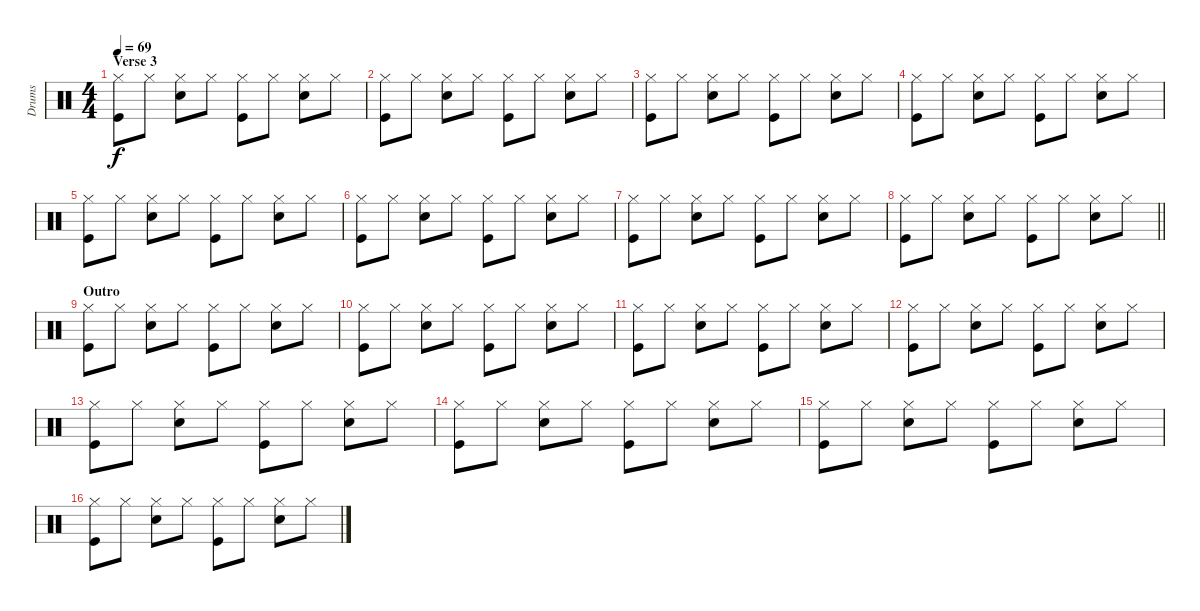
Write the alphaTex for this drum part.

\track ("Drums" "Drums") {instrument percussion}
\staff {score}
\articulation defaults
\ts (4 4)
\section ("" "Verse 3")
\tempo 69
\clef neutral
\ks c
("Hi-Hat (closed)" "Kick (hit)").8{dy f} "Hi-Hat (closed)".8 ("Hi-Hat (closed)" "Snare (hit) 2").8 "Hi-Hat (closed)".8 ("Hi-Hat (closed)" "Kick (hit)").8 "Hi-Hat (closed)".8 ("Hi-Hat (closed)" "Snare (hit) 2").8 "Hi-Hat (closed)".8 |
("Hi-Hat (closed)" "Kick (hit)").8 "Hi-Hat (closed)".8 ("Hi-Hat (closed)" "Snare (hit) 2").8 "Hi-Hat (closed)".8 ("Hi-Hat (closed)" "Kick (hit)").8 "Hi-Hat (closed)".8 ("Hi-Hat (closed)" "Snare (hit) 2").8 "Hi-Hat (closed)".8 |
("Hi-Hat (closed)" "Kick (hit)").8 "Hi-Hat (closed)".8 ("Hi-Hat (closed)" "Snare (hit) 2").8 "Hi-Hat (closed)".8 ("Hi-Hat (closed)" "Kick (hit)").8 "Hi-Hat (closed)".8 ("Hi-Hat (closed)" "Snare (hit) 2").8 "Hi-Hat (closed)".8 |
("Hi-Hat (closed)" "Kick (hit)").8 "Hi-Hat (closed)".8 ("Hi-Hat (closed)" "Snare (hit) 2").8 "Hi-Hat (closed)".8 ("Hi-Hat (closed)" "Kick (hit)").8 "Hi-Hat (closed)".8 ("Hi-Hat (closed)" "Snare (hit) 2").8 "Hi-Hat (closed)".8 |
("Hi-Hat (closed)" "Kick (hit)").8 "Hi-Hat (closed)".8 ("Hi-Hat (closed)" "Snare (hit) 2").8 "Hi-Hat (closed)".8 ("Hi-Hat (closed)" "Kick (hit)").8 "Hi-Hat (closed)".8 ("Hi-Hat (closed)" "Snare (hit) 2").8 "Hi-Hat (closed)".8 |
("Hi-Hat (closed)" "Kick (hit)").8 "Hi-Hat (closed)".8 ("Hi-Hat (closed)" "Snare (hit) 2").8 "Hi-Hat (closed)".8 ("Hi-Hat (closed)" "Kick (hit)").8 "Hi-Hat (closed)".8 ("Hi-Hat (closed)" "Snare (hit) 2").8 "Hi-Hat (closed)".8 |
("Hi-Hat (closed)" "Kick (hit)").8 "Hi-Hat (closed)".8 ("Hi-Hat (closed)" "Snare (hit) 2").8 "Hi-Hat (closed)".8 ("Hi-Hat (closed)" "Kick (hit)").8 "Hi-Hat (closed)".8 ("Hi-Hat (closed)" "Snare (hit) 2").8 "Hi-Hat (closed)".8 |
\barLineRight lightlight
("Hi-Hat (closed)" "Kick (hit)").8 "Hi-Hat (closed)".8 ("Hi-Hat (closed)" "Snare (hit) 2").8 "Hi-Hat (closed)".8 ("Hi-Hat (closed)" "Kick (hit)").8 "Hi-Hat (closed)".8 ("Hi-Hat (closed)" "Snare (hit) 2").8 "Hi-Hat (closed)".8 |
\section ("" "Outro")
("Hi-Hat (closed)" "Kick (hit)").8 "Hi-Hat (closed)".8 ("Hi-Hat (closed)" "Snare (hit) 2").8 "Hi-Hat (closed)".8 ("Hi-Hat (closed)" "Kick (hit)").8 "Hi-Hat (closed)".8 ("Hi-Hat (closed)" "Snare (hit) 2").8 "Hi-Hat (closed)".8 |
("Hi-Hat (closed)" "Kick (hit)").8 "Hi-Hat (closed)".8 ("Hi-Hat (closed)" "Snare (hit) 2").8 "Hi-Hat (closed)".8 ("Hi-Hat (closed)" "Kick (hit)").8 "Hi-Hat (closed)".8 ("Hi-Hat (closed)" "Snare (hit) 2").8 "Hi-Hat (closed)".8 |
("Hi-Hat (closed)" "Kick (hit)").8 "Hi-Hat (closed)".8 ("Hi-Hat (closed)" "Snare (hit) 2").8 "Hi-Hat (closed)".8 ("Hi-Hat (closed)" "Kick (hit)").8 "Hi-Hat (closed)".8 ("Hi-Hat (closed)" "Snare (hit) 2").8 "Hi-Hat (closed)".8 |
("Hi-Hat (closed)" "Kick (hit)").8 "Hi-Hat (closed)".8 ("Hi-Hat (closed)" "Snare (hit) 2").8 "Hi-Hat (closed)".8 ("Hi-Hat (closed)" "Kick (hit)").8 "Hi-Hat (closed)".8 ("Hi-Hat (closed)" "Snare (hit) 2").8 "Hi-Hat (closed)".8 |
("Hi-Hat (closed)" "Kick (hit)").8 "Hi-Hat (closed)".8 ("Hi-Hat (closed)" "Snare (hit) 2").8 "Hi-Hat (closed)".8 ("Hi-Hat (closed)" "Kick (hit)").8 "Hi-Hat (closed)".8 ("Hi-Hat (closed)" "Snare (hit) 2").8 "Hi-Hat (closed)".8 |
("Hi-Hat (closed)" "Kick (hit)").8 "Hi-Hat (closed)".8 ("Hi-Hat (closed)" "Snare (hit) 2").8 "Hi-Hat (closed)".8 ("Hi-Hat (closed)" "Kick (hit)").8 "Hi-Hat (closed)".8 ("Hi-Hat (closed)" "Snare (hit) 2").8 "Hi-Hat (closed)".8 |
("Hi-Hat (closed)" "Kick (hit)").8 "Hi-Hat (closed)".8 ("Hi-Hat (closed)" "Snare (hit) 2").8 "Hi-Hat (closed)".8 ("Hi-Hat (closed)" "Kick (hit)").8 "Hi-Hat (closed)".8 ("Hi-Hat (closed)" "Snare (hit) 2").8 "Hi-Hat (closed)".8 |
("Hi-Hat (closed)" "Kick (hit)").8 "Hi-Hat (closed)".8 ("Hi-Hat (closed)" "Snare (hit) 2").8 "Hi-Hat (closed)".8 ("Hi-Hat (closed)" "Kick (hit)").8 "Hi-Hat (closed)".8 ("Hi-Hat (closed)" "Snare (hit) 2").8 "Hi-Hat (closed)".8
